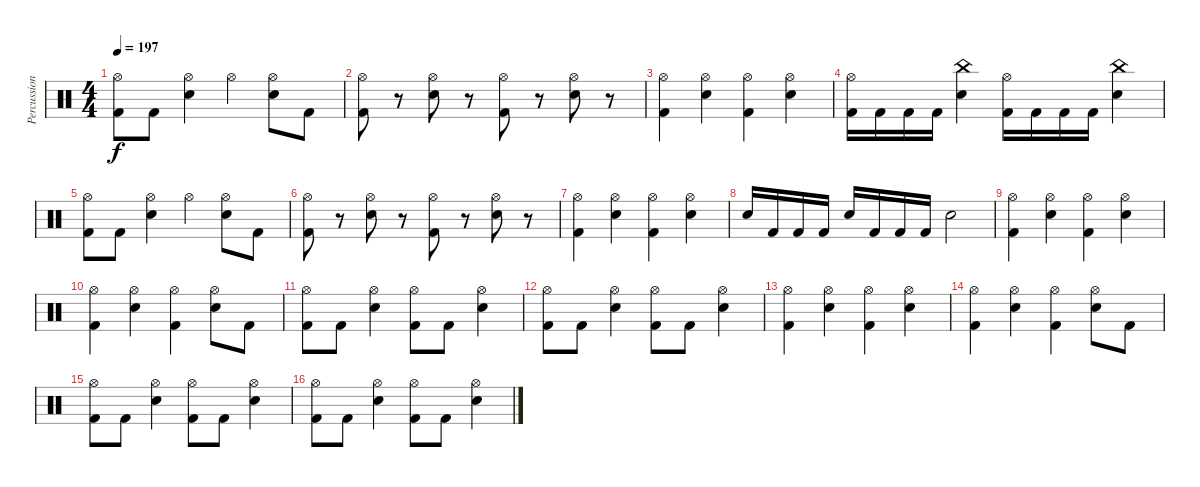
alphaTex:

\track ("Percussion" "Percussion") {instrument percussion}
\staff {score}
\articulation defaults
\ts (4 4)
\tempo 197
\clef neutral
\ks c
("Hi-Hat (open)" "Kick (hit) 2").8{dy f} "Kick (hit) 2".8 ("Hi-Hat (open)" "Electric Snare (hit)").4 "Hi-Hat (open)".4 ("Hi-Hat (open)" "Electric Snare (hit)").8 "Kick (hit) 2".8 |
("Hi-Hat (open)" "Kick (hit) 2").8 r.8 ("Hi-Hat (open)" "Electric Snare (hit)").8 r.8 ("Hi-Hat (open)" "Kick (hit) 2").8 r.8 ("Hi-Hat (open)" "Electric Snare (hit)").8 r.8 |
("Hi-Hat (open)" "Kick (hit) 2").4 ("Hi-Hat (open)" "Electric Snare (hit)").4 ("Hi-Hat (open)" "Kick (hit) 2").4 ("Hi-Hat (open)" "Electric Snare (hit)").4 |
("Hi-Hat (open)" "Kick (hit) 2").16 "Kick (hit) 2".16 "Kick (hit) 2".16 "Kick (hit) 2".16 ("China (hit)" "Electric Snare (hit)").4 ("Hi-Hat (open)" "Kick (hit) 2").16 "Kick (hit) 2".16 "Kick (hit) 2".16 "Kick (hit) 2".16 ("China (hit)" "Electric Snare (hit)").4 |
("Hi-Hat (open)" "Kick (hit) 2").8 "Kick (hit) 2".8 ("Hi-Hat (open)" "Electric Snare (hit)").4 "Hi-Hat (open)".4 ("Hi-Hat (open)" "Electric Snare (hit)").8 "Kick (hit) 2".8 |
("Hi-Hat (open)" "Kick (hit) 2").8 r.8 ("Hi-Hat (open)" "Electric Snare (hit)").8 r.8 ("Hi-Hat (open)" "Kick (hit) 2").8 r.8 ("Hi-Hat (open)" "Electric Snare (hit)").8 r.8 |
("Hi-Hat (open)" "Kick (hit) 2").4 ("Hi-Hat (open)" "Electric Snare (hit)").4 ("Hi-Hat (open)" "Kick (hit) 2").4 ("Hi-Hat (open)" "Electric Snare (hit)").4 |
"Electric Snare (hit)".16 "Kick (hit) 2".16 "Kick (hit) 2".16 "Kick (hit) 2".16 "Electric Snare (hit)".16 "Kick (hit) 2".16 "Kick (hit) 2".16 "Kick (hit) 2".16 "Electric Snare (hit)".2 |
("Hi-Hat (open)" "Kick (hit) 2").4 ("Hi-Hat (open)" "Electric Snare (hit)").4 ("Hi-Hat (open)" "Kick (hit) 2").4 ("Hi-Hat (open)" "Electric Snare (hit)").4 |
("Hi-Hat (open)" "Kick (hit) 2").4 ("Hi-Hat (open)" "Electric Snare (hit)").4 ("Hi-Hat (open)" "Kick (hit) 2").4 ("Hi-Hat (open)" "Electric Snare (hit)").8 "Kick (hit) 2".8 |
("Hi-Hat (open)" "Kick (hit) 2").8 "Kick (hit) 2".8 ("Hi-Hat (open)" "Electric Snare (hit)").4 ("Hi-Hat (open)" "Kick (hit) 2").8 "Kick (hit) 2".8 ("Hi-Hat (open)" "Electric Snare (hit)").4 |
("Hi-Hat (open)" "Kick (hit) 2").8 "Kick (hit) 2".8 ("Hi-Hat (open)" "Electric Snare (hit)").4 ("Hi-Hat (open)" "Kick (hit) 2").8 "Kick (hit) 2".8 ("Hi-Hat (open)" "Electric Snare (hit)").4 |
("Hi-Hat (open)" "Kick (hit) 2").4 ("Hi-Hat (open)" "Electric Snare (hit)").4 ("Hi-Hat (open)" "Kick (hit) 2").4 ("Hi-Hat (open)" "Electric Snare (hit)").4 |
("Hi-Hat (open)" "Kick (hit) 2").4 ("Hi-Hat (open)" "Electric Snare (hit)").4 ("Hi-Hat (open)" "Kick (hit) 2").4 ("Hi-Hat (open)" "Electric Snare (hit)").8 "Kick (hit) 2".8 |
("Hi-Hat (open)" "Kick (hit) 2").8 "Kick (hit) 2".8 ("Hi-Hat (open)" "Electric Snare (hit)").4 ("Hi-Hat (open)" "Kick (hit) 2").8 "Kick (hit) 2".8 ("Hi-Hat (open)" "Electric Snare (hit)").4 |
("Hi-Hat (open)" "Kick (hit) 2").8 "Kick (hit) 2".8 ("Hi-Hat (open)" "Electric Snare (hit)").4 ("Hi-Hat (open)" "Kick (hit) 2").8 "Kick (hit) 2".8 ("Hi-Hat (open)" "Electric Snare (hit)").4
